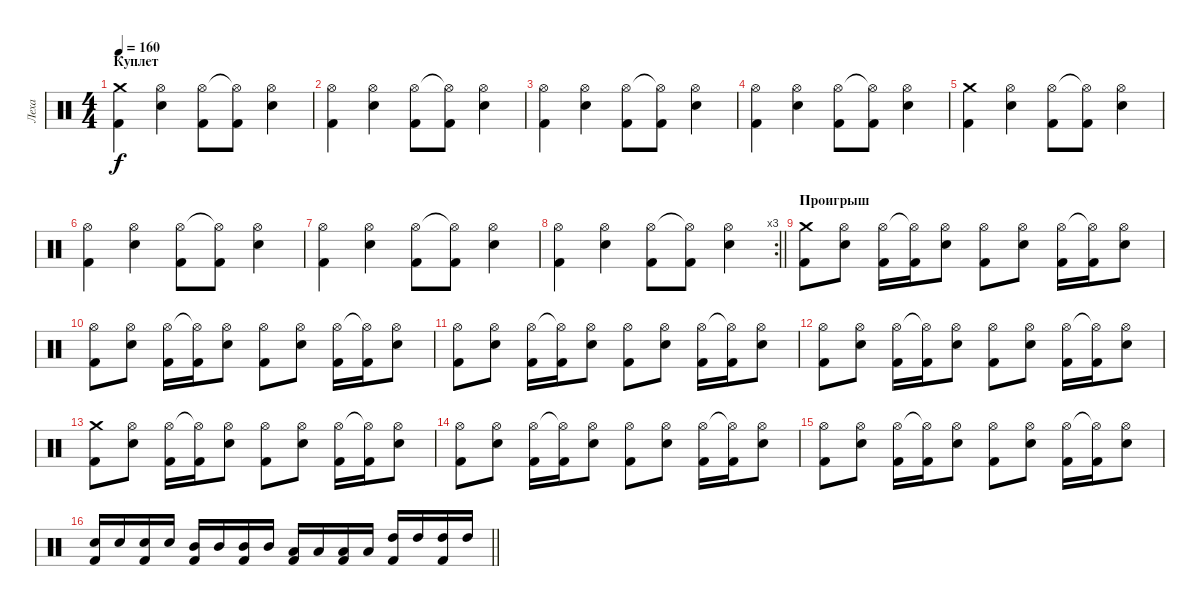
\track ("Леха" "Леха") {instrument percussion}
\staff {score}
\articulation defaults
\ts (4 4)
\section ("" "Куплет")
\tempo 160
\clef neutral
\ks c
("Crash medium (hit)" "Kick (hit) 2").4{dy f} ("Hi-Hat (open)" "Snare (hit) 2").4 ("Hi-Hat (open)" "Kick (hit) 2").8 ("Hi-Hat (open)"{t} "Kick (hit) 2").8 ("Hi-Hat (open)" "Snare (hit) 2").4 |
("Hi-Hat (open)" "Kick (hit) 2").4 ("Hi-Hat (open)" "Snare (hit) 2").4 ("Hi-Hat (open)" "Kick (hit) 2").8 ("Hi-Hat (open)"{t} "Kick (hit) 2").8 ("Hi-Hat (open)" "Snare (hit) 2").4 |
("Hi-Hat (open)" "Kick (hit) 2").4 ("Hi-Hat (open)" "Snare (hit) 2").4 ("Hi-Hat (open)" "Kick (hit) 2").8 ("Hi-Hat (open)"{t} "Kick (hit) 2").8 ("Hi-Hat (open)" "Snare (hit) 2").4 |
("Hi-Hat (open)" "Kick (hit) 2").4 ("Hi-Hat (open)" "Snare (hit) 2").4 ("Hi-Hat (open)" "Kick (hit) 2").8 ("Hi-Hat (open)"{t} "Kick (hit) 2").8 ("Hi-Hat (open)" "Snare (hit) 2").4 |
("Crash medium (hit)" "Kick (hit) 2").4 ("Hi-Hat (open)" "Snare (hit) 2").4 ("Hi-Hat (open)" "Kick (hit) 2").8 ("Hi-Hat (open)"{t} "Kick (hit) 2").8 ("Hi-Hat (open)" "Snare (hit) 2").4 |
("Hi-Hat (open)" "Kick (hit) 2").4 ("Hi-Hat (open)" "Snare (hit) 2").4 ("Hi-Hat (open)" "Kick (hit) 2").8 ("Hi-Hat (open)"{t} "Kick (hit) 2").8 ("Hi-Hat (open)" "Snare (hit) 2").4 |
("Hi-Hat (open)" "Kick (hit) 2").4 ("Hi-Hat (open)" "Snare (hit) 2").4 ("Hi-Hat (open)" "Kick (hit) 2").8 ("Hi-Hat (open)"{t} "Kick (hit) 2").8 ("Hi-Hat (open)" "Snare (hit) 2").4 |
\rc 3
\barLineRight lightlight
("Hi-Hat (open)" "Kick (hit) 2").4 ("Hi-Hat (open)" "Snare (hit) 2").4 ("Hi-Hat (open)" "Kick (hit) 2").8 ("Hi-Hat (open)"{t} "Kick (hit) 2").8 ("Hi-Hat (open)" "Snare (hit) 2").4 |
\section ("" "Проигрыш")
("Crash medium (hit)" "Kick (hit) 2").8 ("Hi-Hat (open)" "Snare (hit) 2").8 ("Hi-Hat (open)" "Kick (hit) 2").16 ("Hi-Hat (open)"{t} "Kick (hit) 2").16 ("Hi-Hat (open)" "Snare (hit) 2").8 ("Hi-Hat (open)" "Kick (hit) 2").8 ("Hi-Hat (open)" "Snare (hit) 2").8 ("Hi-Hat (open)" "Kick (hit) 2").16 ("Hi-Hat (open)"{t} "Kick (hit) 2").16 ("Hi-Hat (open)" "Snare (hit) 2").8 |
("Hi-Hat (open)" "Kick (hit) 2").8 ("Hi-Hat (open)" "Snare (hit) 2").8 ("Hi-Hat (open)" "Kick (hit) 2").16 ("Hi-Hat (open)"{t} "Kick (hit) 2").16 ("Hi-Hat (open)" "Snare (hit) 2").8 ("Hi-Hat (open)" "Kick (hit) 2").8 ("Hi-Hat (open)" "Snare (hit) 2").8 ("Hi-Hat (open)" "Kick (hit) 2").16 ("Hi-Hat (open)"{t} "Kick (hit) 2").16 ("Hi-Hat (open)" "Snare (hit) 2").8 |
("Hi-Hat (open)" "Kick (hit) 2").8 ("Hi-Hat (open)" "Snare (hit) 2").8 ("Hi-Hat (open)" "Kick (hit) 2").16 ("Hi-Hat (open)"{t} "Kick (hit) 2").16 ("Hi-Hat (open)" "Snare (hit) 2").8 ("Hi-Hat (open)" "Kick (hit) 2").8 ("Hi-Hat (open)" "Snare (hit) 2").8 ("Hi-Hat (open)" "Kick (hit) 2").16 ("Hi-Hat (open)"{t} "Kick (hit) 2").16 ("Hi-Hat (open)" "Snare (hit) 2").8 |
("Hi-Hat (open)" "Kick (hit) 2").8 ("Hi-Hat (open)" "Snare (hit) 2").8 ("Hi-Hat (open)" "Kick (hit) 2").16 ("Hi-Hat (open)"{t} "Kick (hit) 2").16 ("Hi-Hat (open)" "Snare (hit) 2").8 ("Hi-Hat (open)" "Kick (hit) 2").8 ("Hi-Hat (open)" "Snare (hit) 2").8 ("Hi-Hat (open)" "Kick (hit) 2").16 ("Hi-Hat (open)"{t} "Kick (hit) 2").16 ("Hi-Hat (open)" "Snare (hit) 2").8 |
("Crash medium (hit)" "Kick (hit) 2").8 ("Hi-Hat (open)" "Snare (hit) 2").8 ("Hi-Hat (open)" "Kick (hit) 2").16 ("Hi-Hat (open)"{t} "Kick (hit) 2").16 ("Hi-Hat (open)" "Snare (hit) 2").8 ("Hi-Hat (open)" "Kick (hit) 2").8 ("Hi-Hat (open)" "Snare (hit) 2").8 ("Hi-Hat (open)" "Kick (hit) 2").16 ("Hi-Hat (open)"{t} "Kick (hit) 2").16 ("Hi-Hat (open)" "Snare (hit) 2").8 |
("Hi-Hat (open)" "Kick (hit) 2").8 ("Hi-Hat (open)" "Snare (hit) 2").8 ("Hi-Hat (open)" "Kick (hit) 2").16 ("Hi-Hat (open)"{t} "Kick (hit) 2").16 ("Hi-Hat (open)" "Snare (hit) 2").8 ("Hi-Hat (open)" "Kick (hit) 2").8 ("Hi-Hat (open)" "Snare (hit) 2").8 ("Hi-Hat (open)" "Kick (hit) 2").16 ("Hi-Hat (open)"{t} "Kick (hit) 2").16 ("Hi-Hat (open)" "Snare (hit) 2").8 |
("Hi-Hat (open)" "Kick (hit) 2").8 ("Hi-Hat (open)" "Snare (hit) 2").8 ("Hi-Hat (open)" "Kick (hit) 2").16 ("Hi-Hat (open)"{t} "Kick (hit) 2").16 ("Hi-Hat (open)" "Snare (hit) 2").8 ("Hi-Hat (open)" "Kick (hit) 2").8 ("Hi-Hat (open)" "Snare (hit) 2").8 ("Hi-Hat (open)" "Kick (hit) 2").16 ("Hi-Hat (open)"{t} "Kick (hit) 2").16 ("Hi-Hat (open)" "Snare (hit) 2").8 |
\barLineRight lightlight
("Snare (hit) 2" "Kick (hit) 2").16 "Snare (hit) 2".16 ("Snare (hit) 2" "Kick (hit) 2").16 "Snare (hit) 2".16 ("Mid Tom (hit)" "Kick (hit) 2").16 "Mid Tom (hit)".16 ("Mid Tom (hit)" "Kick (hit) 2").16 "Mid Tom (hit)".16 ("Low Tom (hit)" "Kick (hit) 2").16 "Low Tom (hit)".16 ("Low Tom (hit)" "Kick (hit) 2").16 "Low Tom (hit)".16 ("High Tom (hit)" "Kick (hit) 2").16 "High Tom (hit)".16 ("High Tom (hit)" "Kick (hit) 2").16 "High Tom (hit)".16
